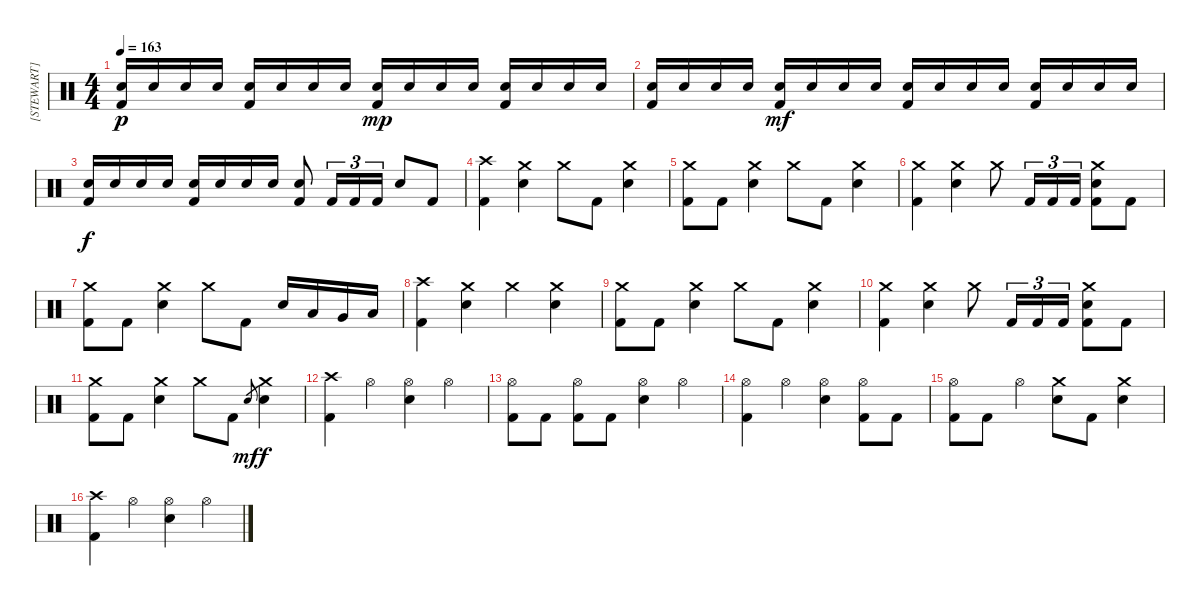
\track ("[STEWART]" "[STEWART]") {instrument percussion}
\staff {score}
\articulation defaults
\ts (4 4)
\tempo 163
\clef neutral
\ks c
("Electric Snare (hit)" "Kick (hit) 2").16{dy p} "Electric Snare (hit)".16 "Electric Snare (hit)".16 "Electric Snare (hit)".16 ("Electric Snare (hit)" "Kick (hit) 2").16 "Electric Snare (hit)".16 "Electric Snare (hit)".16 "Electric Snare (hit)".16 ("Electric Snare (hit)" "Kick (hit) 2").16{dy mp} "Electric Snare (hit)".16 "Electric Snare (hit)".16 "Electric Snare (hit)".16 ("Electric Snare (hit)" "Kick (hit) 2").16 "Electric Snare (hit)".16 "Electric Snare (hit)".16 "Electric Snare (hit)".16 |
("Electric Snare (hit)" "Kick (hit) 2").16 "Electric Snare (hit)".16 "Electric Snare (hit)".16 "Electric Snare (hit)".16 ("Electric Snare (hit)" "Kick (hit) 2").16{dy mf} "Electric Snare (hit)".16 "Electric Snare (hit)".16 "Electric Snare (hit)".16 ("Electric Snare (hit)" "Kick (hit) 2").16 "Electric Snare (hit)".16 "Electric Snare (hit)".16 "Electric Snare (hit)".16 ("Electric Snare (hit)" "Kick (hit) 2").16 "Electric Snare (hit)".16 "Electric Snare (hit)".16 "Electric Snare (hit)".16 |
("Electric Snare (hit)" "Kick (hit) 2").16{dy f} "Electric Snare (hit)".16 "Electric Snare (hit)".16 "Electric Snare (hit)".16 ("Electric Snare (hit)" "Kick (hit) 2").16 "Electric Snare (hit)".16 "Electric Snare (hit)".16 "Electric Snare (hit)".16 ("Electric Snare (hit)" "Kick (hit) 2").8 "Kick (hit) 2".16{tu (3 2)} "Kick (hit) 2".16{tu (3 2)} "Kick (hit) 2".16{tu (3 2)} "Electric Snare (hit)".8 "Kick (hit) 2".8 |
("Crash high (hit)" "Kick (hit) 2").4 ("Crash medium (hit)" "Electric Snare (hit)").4 "Crash medium (hit)".8 "Kick (hit) 2".8 ("Crash medium (hit)" "Electric Snare (hit)").4 |
("Crash medium (hit)" "Kick (hit) 2").8 "Kick (hit) 2".8 ("Crash medium (hit)" "Electric Snare (hit)").4 "Crash medium (hit)".8 "Kick (hit) 2".8 ("Crash medium (hit)" "Electric Snare (hit)").4 |
("Crash medium (hit)" "Kick (hit) 2").4 ("Crash medium (hit)" "Electric Snare (hit)").4 "Crash medium (hit)".8 "Kick (hit) 2".16{tu (3 2)} "Kick (hit) 2".16{tu (3 2)} "Kick (hit) 2".16{tu (3 2)} ("Crash medium (hit)" "Electric Snare (hit)" "Kick (hit) 2").8 "Kick (hit) 2".8 |
("Crash medium (hit)" "Kick (hit) 2").8 "Kick (hit) 2".8 ("Crash medium (hit)" "Electric Snare (hit)").4 "Crash medium (hit)".8 "Kick (hit) 2".8 "Electric Snare (hit)".16 "Low Tom (hit)".16 "Very Low Tom (hit)".16 "Low Floor Tom (hit)".16 |
("Crash high (hit)" "Kick (hit) 2").4 ("Crash medium (hit)" "Electric Snare (hit)").4 "Crash medium (hit)".4 ("Crash medium (hit)" "Electric Snare (hit)").4 |
("Crash medium (hit)" "Kick (hit) 2").8 "Kick (hit) 2".8 ("Crash medium (hit)" "Electric Snare (hit)").4 "Crash medium (hit)".8 "Kick (hit) 2".8 ("Crash medium (hit)" "Electric Snare (hit)").4 |
("Crash medium (hit)" "Kick (hit) 2").4 ("Crash medium (hit)" "Electric Snare (hit)").4 "Crash medium (hit)".8 "Kick (hit) 2".16{tu (3 2)} "Kick (hit) 2".16{tu (3 2)} "Kick (hit) 2".16{tu (3 2)} ("Crash medium (hit)" "Electric Snare (hit)" "Kick (hit) 2").8 "Kick (hit) 2".8 |
("Crash medium (hit)" "Kick (hit) 2").8 "Kick (hit) 2".8 ("Crash medium (hit)" "Electric Snare (hit)").4 "Crash medium (hit)".8 "Kick (hit) 2".8 "Electric Snare (hit)".8{gr dy mf} ("Crash medium (hit)" "Electric Snare (hit)").4{dy f} |
("Crash high (hit)" "Kick (hit) 2").4 "Hi-Hat (open)".4 ("Hi-Hat (open)" "Electric Snare (hit)").4 "Hi-Hat (open)".4 |
("Hi-Hat (open)" "Kick (hit) 2").8 "Kick (hit) 2".8 ("Hi-Hat (open)" "Kick (hit) 2").8 "Kick (hit) 2".8 ("Hi-Hat (open)" "Electric Snare (hit)").4 "Hi-Hat (open)".4 |
("Hi-Hat (open)" "Kick (hit) 2").4 "Hi-Hat (open)".4 ("Hi-Hat (open)" "Electric Snare (hit)").4 ("Hi-Hat (open)" "Kick (hit) 2").8 "Kick (hit) 2".8 |
("Hi-Hat (open)" "Kick (hit) 2").8 "Kick (hit) 2".8 "Hi-Hat (open)".4 ("Crash medium (hit)" "Electric Snare (hit)").8 "Kick (hit) 2".8 ("Crash medium (hit)" "Electric Snare (hit)").4 |
("Crash high (hit)" "Kick (hit) 2").4 "Hi-Hat (open)".4 ("Hi-Hat (open)" "Electric Snare (hit)").4 "Hi-Hat (open)".4
